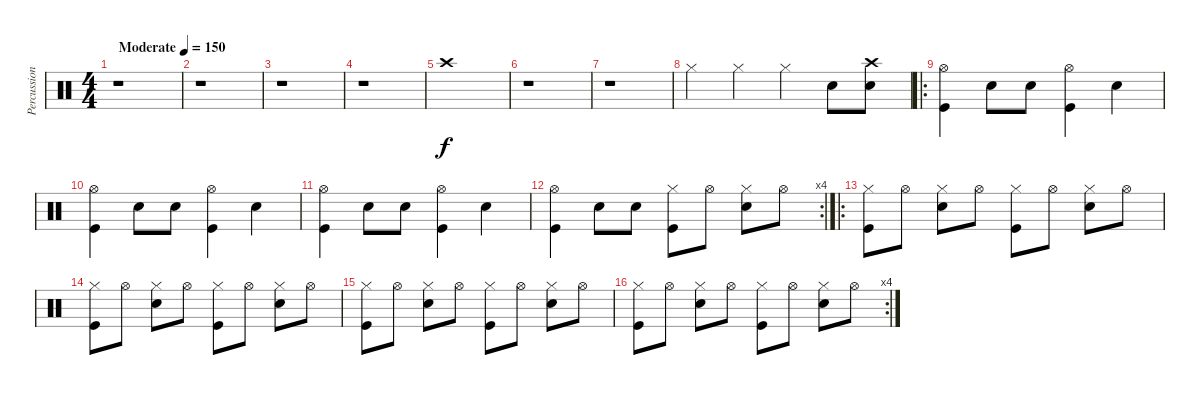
\track ("Percussion" "Percussion") {instrument percussion}
\staff {score}
\articulation defaults
\ts (4 4)
\tempo (150 "Moderate")
\clef neutral
\ks c
r.1{dy f} |
r.1 |
r.1 |
r.1 |
"Crash high (hit)".1 |
r.1 |
r.1 |
"Hi-Hat (closed)".4 "Hi-Hat (closed)".4 "Hi-Hat (closed)".4 "Electric Snare (hit)".8 ("Crash high (hit)" "Electric Snare (hit)").8 |
\ro
("Hi-Hat (open)" "Kick (hit)").4 "Electric Snare (hit)".8 "Electric Snare (hit)".8 ("Hi-Hat (open)" "Kick (hit)").4 "Electric Snare (hit)".4 |
("Hi-Hat (open)" "Kick (hit)").4 "Electric Snare (hit)".8 "Electric Snare (hit)".8 ("Hi-Hat (open)" "Kick (hit)").4 "Electric Snare (hit)".4 |
("Hi-Hat (open)" "Kick (hit)").4 "Electric Snare (hit)".8 "Electric Snare (hit)".8 ("Hi-Hat (open)" "Kick (hit)").4 "Electric Snare (hit)".4 |
\rc 4
("Hi-Hat (open)" "Kick (hit)").4 "Electric Snare (hit)".8 "Electric Snare (hit)".8 ("Hi-Hat (closed)" "Kick (hit)").8 "Hi-Hat (open)".8 ("Hi-Hat (closed)" "Electric Snare (hit)").8 "Hi-Hat (open)".8 |
\ro
("Hi-Hat (closed)" "Kick (hit)").8 "Hi-Hat (open)".8 ("Hi-Hat (closed)" "Electric Snare (hit)").8 "Hi-Hat (open)".8 ("Hi-Hat (closed)" "Kick (hit)").8 "Hi-Hat (open)".8 ("Hi-Hat (closed)" "Electric Snare (hit)").8 "Hi-Hat (open)".8 |
("Hi-Hat (closed)" "Kick (hit)").8 "Hi-Hat (open)".8 ("Hi-Hat (closed)" "Electric Snare (hit)").8 "Hi-Hat (open)".8 ("Hi-Hat (closed)" "Kick (hit)").8 "Hi-Hat (open)".8 ("Hi-Hat (closed)" "Electric Snare (hit)").8 "Hi-Hat (open)".8 |
("Hi-Hat (closed)" "Kick (hit)").8 "Hi-Hat (open)".8 ("Hi-Hat (closed)" "Electric Snare (hit)").8 "Hi-Hat (open)".8 ("Hi-Hat (closed)" "Kick (hit)").8 "Hi-Hat (open)".8 ("Hi-Hat (closed)" "Electric Snare (hit)").8 "Hi-Hat (open)".8 |
\rc 4
("Hi-Hat (closed)" "Kick (hit)").8 "Hi-Hat (open)".8 ("Hi-Hat (closed)" "Electric Snare (hit)").8 "Hi-Hat (open)".8 ("Hi-Hat (closed)" "Kick (hit)").8 "Hi-Hat (open)".8 ("Hi-Hat (closed)" "Electric Snare (hit)").8 "Hi-Hat (open)".8
